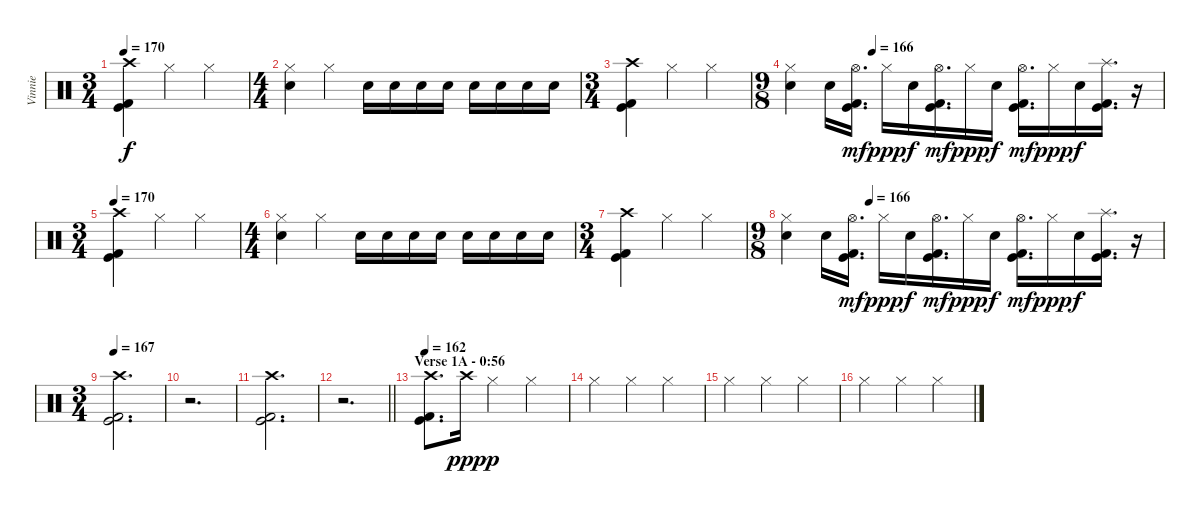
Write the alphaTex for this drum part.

\track ("Vinnie" "Vinnie") {instrument percussion}
\staff {score}
\articulation defaults
\ts (3 4)
\tempo 170
\clef neutral
\ks c
("Crash high (hit)" "Kick (hit)" "Kick (hit) 2").4{dy f} "Hi-Hat (closed)".4 "Hi-Hat (closed)".4 |
\ts (4 4)
("Hi-Hat (closed)" "Electric Snare (hit)").4 "Hi-Hat (closed)".4 "Electric Snare (hit)".16 "Electric Snare (hit)".16 "Electric Snare (hit)".16 "Electric Snare (hit)".16 "Electric Snare (hit)".16 "Electric Snare (hit)".16 "Electric Snare (hit)".16 "Electric Snare (hit)".16 |
\ts (3 4)
("Crash high (hit)" "Kick (hit)" "Kick (hit) 2").4 "Hi-Hat (closed)".4 "Hi-Hat (closed)".4 |
\ts (9 8)
\tempo (166 0.2222222222222222)
("Hi-Hat (closed)" "Electric Snare (hit)").4 "Electric Snare (hit)".16 ("Hi-Hat (open)" "Kick (hit)" "Kick (hit) 2").16{d dy mf} "Hi-Hat (closed)".16{dy ppp} "Electric Snare (hit)".16{dy f} ("Hi-Hat (open)" "Kick (hit)" "Kick (hit) 2").16{d dy mf} "Hi-Hat (closed)".16{dy ppp} "Electric Snare (hit)".16{dy f} ("Hi-Hat (open)" "Kick (hit)" "Kick (hit) 2").16{d dy mf} "Hi-Hat (closed)".16{dy ppp} "Electric Snare (hit)".16{dy f} ("Splash (hit)" "Kick (hit)" "Kick (hit) 2").16{d} r.16 |
\ts (3 4)
\tempo 170
("Crash high (hit)" "Kick (hit)" "Kick (hit) 2").4 "Hi-Hat (closed)".4 "Hi-Hat (closed)".4 |
\ts (4 4)
("Hi-Hat (closed)" "Electric Snare (hit)").4 "Hi-Hat (closed)".4 "Electric Snare (hit)".16 "Electric Snare (hit)".16 "Electric Snare (hit)".16 "Electric Snare (hit)".16 "Electric Snare (hit)".16 "Electric Snare (hit)".16 "Electric Snare (hit)".16 "Electric Snare (hit)".16 |
\ts (3 4)
("Crash high (hit)" "Kick (hit)" "Kick (hit) 2").4 "Hi-Hat (closed)".4 "Hi-Hat (closed)".4 |
\ts (9 8)
\tempo (166 0.2222222222222222)
("Hi-Hat (closed)" "Electric Snare (hit)").4 "Electric Snare (hit)".16 ("Hi-Hat (open)" "Kick (hit)" "Kick (hit) 2").16{d dy mf} "Hi-Hat (closed)".16{dy ppp} "Electric Snare (hit)".16{dy f} ("Hi-Hat (open)" "Kick (hit)" "Kick (hit) 2").16{d dy mf} "Hi-Hat (closed)".16{dy ppp} "Electric Snare (hit)".16{dy f} ("Hi-Hat (open)" "Kick (hit)" "Kick (hit) 2").16{d dy mf} "Hi-Hat (closed)".16{dy ppp} "Electric Snare (hit)".16{dy f} ("Splash (hit)" "Kick (hit)" "Kick (hit) 2").16{d} r.16 |
\ts (3 4)
\tempo 167
("Crash high (hit)" "Kick (hit)" "Kick (hit) 2").2{d} |
r.2{d} |
("Crash high (hit)" "Kick (hit)" "Kick (hit) 2").2{d} |
\barLineRight lightlight
r.2{d} |
\section ("" "Verse 1A - 0:56")
\tempo 162
("Crash high (hit)" "Kick (hit)" "Kick (hit) 2").8{d} "Crash high (hit)".16{dy ppp} "Hi-Hat (closed)".4{dy p} "Hi-Hat (closed)".4 |
"Hi-Hat (closed)".4 "Hi-Hat (closed)".4 "Hi-Hat (closed)".4 |
"Hi-Hat (closed)".4 "Hi-Hat (closed)".4 "Hi-Hat (closed)".4 |
"Hi-Hat (closed)".4 "Hi-Hat (closed)".4 "Hi-Hat (closed)".4
